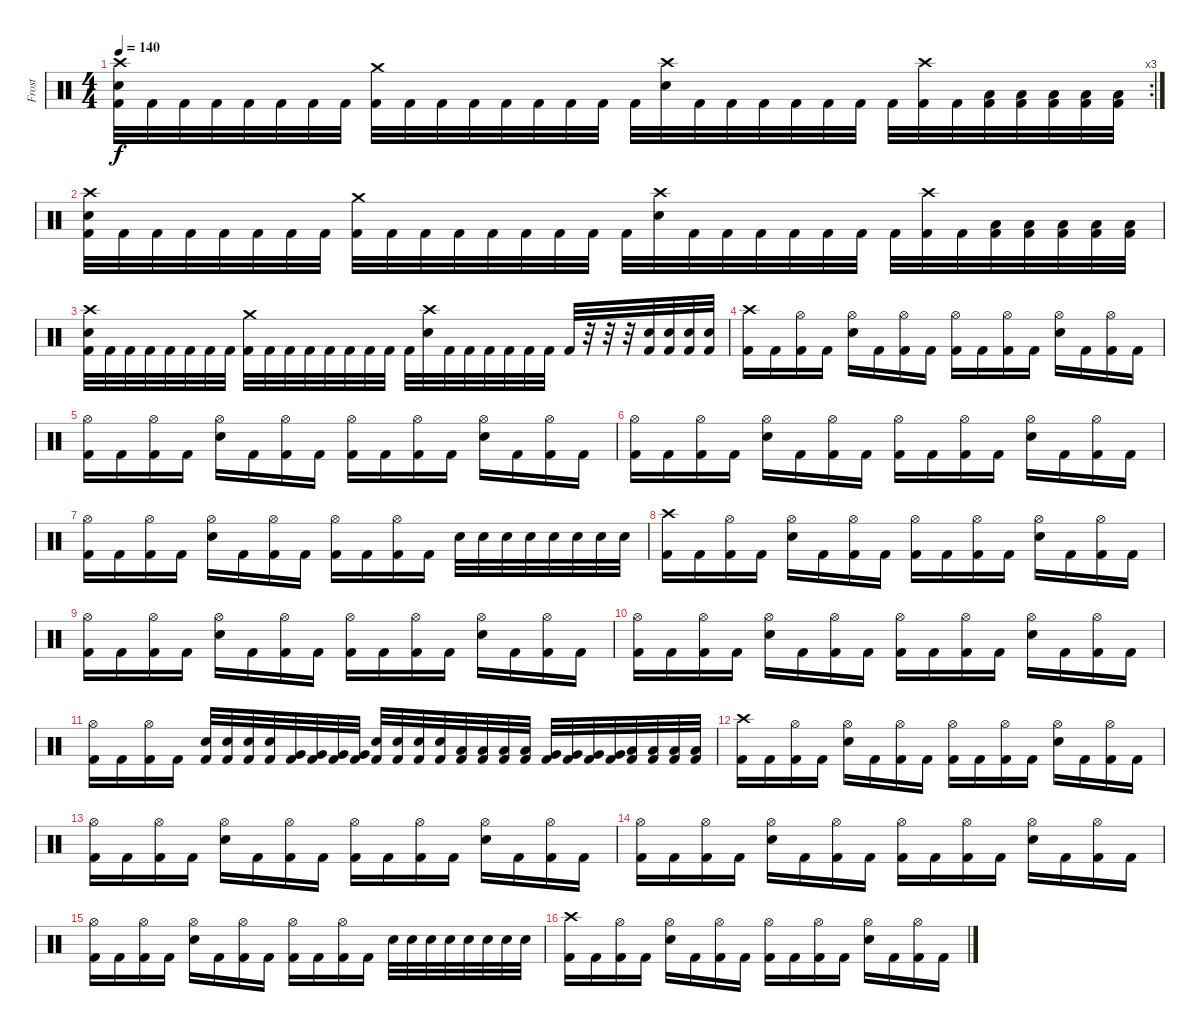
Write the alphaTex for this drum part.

\track ("Frost" "Frost") {instrument percussion}
\staff {score}
\articulation defaults
\rc 3
\ts (4 4)
\tempo 140
\clef neutral
\ks c
("Crash high (hit)" "Snare (hit) 2" "Kick (hit) 2").32{dy f} "Kick (hit) 2".32 "Kick (hit) 2".32 "Kick (hit) 2".32 "Kick (hit) 2".32 "Kick (hit) 2".32 "Kick (hit) 2".32 "Kick (hit) 2".32 ("Crash medium (hit)" "Kick (hit) 2").32 "Kick (hit) 2".32 "Kick (hit) 2".32 "Kick (hit) 2".32 "Kick (hit) 2".32 "Kick (hit) 2".32 "Kick (hit) 2".32 "Kick (hit) 2".32 "Kick (hit) 2".32 ("Crash high (hit)" "Snare (hit) 2").32 "Kick (hit) 2".32 "Kick (hit) 2".32 "Kick (hit) 2".32 "Kick (hit) 2".32 "Kick (hit) 2".32 "Kick (hit) 2".32 "Kick (hit) 2".32 ("Crash high (hit)" "Kick (hit) 2").32 "Kick (hit) 2".32 ("Low Tom (hit)" "Kick (hit) 2").32 ("Low Tom (hit)" "Kick (hit) 2").32 ("Low Tom (hit)" "Kick (hit) 2").32 ("Low Tom (hit)" "Kick (hit) 2").32 ("Low Tom (hit)" "Kick (hit) 2").32 |
("Crash high (hit)" "Snare (hit) 2" "Kick (hit) 2").32 "Kick (hit) 2".32 "Kick (hit) 2".32 "Kick (hit) 2".32 "Kick (hit) 2".32 "Kick (hit) 2".32 "Kick (hit) 2".32 "Kick (hit) 2".32 ("Crash medium (hit)" "Kick (hit) 2").32 "Kick (hit) 2".32 "Kick (hit) 2".32 "Kick (hit) 2".32 "Kick (hit) 2".32 "Kick (hit) 2".32 "Kick (hit) 2".32 "Kick (hit) 2".32 "Kick (hit) 2".32 ("Crash high (hit)" "Snare (hit) 2").32 "Kick (hit) 2".32 "Kick (hit) 2".32 "Kick (hit) 2".32 "Kick (hit) 2".32 "Kick (hit) 2".32 "Kick (hit) 2".32 "Kick (hit) 2".32 ("Crash high (hit)" "Kick (hit) 2").32 "Kick (hit) 2".32 ("Low Tom (hit)" "Kick (hit) 2").32 ("Low Tom (hit)" "Kick (hit) 2").32 ("Low Tom (hit)" "Kick (hit) 2").32 ("Low Tom (hit)" "Kick (hit) 2").32 ("Low Tom (hit)" "Kick (hit) 2").32 |
("Crash high (hit)" "Snare (hit) 2" "Kick (hit) 2").32 "Kick (hit) 2".32 "Kick (hit) 2".32 "Kick (hit) 2".32 "Kick (hit) 2".32 "Kick (hit) 2".32 "Kick (hit) 2".32 "Kick (hit) 2".32 ("Crash medium (hit)" "Kick (hit) 2").32 "Kick (hit) 2".32 "Kick (hit) 2".32 "Kick (hit) 2".32 "Kick (hit) 2".32 "Kick (hit) 2".32 "Kick (hit) 2".32 "Kick (hit) 2".32 "Kick (hit) 2".32 ("Crash high (hit)" "Snare (hit) 2").32 "Kick (hit) 2".32 "Kick (hit) 2".32 "Kick (hit) 2".32 "Kick (hit) 2".32 "Kick (hit) 2".32 "Kick (hit) 2".32 "Kick (hit) 2".32 r.32 r.32 r.32 ("Snare (hit) 2" "Kick (hit) 2").32 ("Snare (hit) 2" "Kick (hit) 2").32 ("Snare (hit) 2" "Kick (hit) 2").32 ("Snare (hit) 2" "Kick (hit) 2").32 |
("Crash high (hit)" "Kick (hit) 2").16 "Kick (hit) 2".16 ("Hi-Hat (open)" "Kick (hit) 2").16 "Kick (hit) 2".16 ("Hi-Hat (open)" "Snare (hit) 2").16 "Kick (hit) 2".16 ("Hi-Hat (open)" "Kick (hit) 2").16 "Kick (hit) 2".16 ("Hi-Hat (open)" "Kick (hit) 2").16 "Kick (hit) 2".16 ("Hi-Hat (open)" "Kick (hit) 2").16 "Kick (hit) 2".16 ("Hi-Hat (open)" "Snare (hit) 2").16 "Kick (hit) 2".16 ("Hi-Hat (open)" "Kick (hit) 2").16 "Kick (hit) 2".16 |
("Hi-Hat (open)" "Kick (hit) 2").16 "Kick (hit) 2".16 ("Hi-Hat (open)" "Kick (hit) 2").16 "Kick (hit) 2".16 ("Hi-Hat (open)" "Snare (hit) 2").16 "Kick (hit) 2".16 ("Hi-Hat (open)" "Kick (hit) 2").16 "Kick (hit) 2".16 ("Hi-Hat (open)" "Kick (hit) 2").16 "Kick (hit) 2".16 ("Hi-Hat (open)" "Kick (hit) 2").16 "Kick (hit) 2".16 ("Hi-Hat (open)" "Snare (hit) 2").16 "Kick (hit) 2".16 ("Hi-Hat (open)" "Kick (hit) 2").16 "Kick (hit) 2".16 |
("Hi-Hat (open)" "Kick (hit) 2").16 "Kick (hit) 2".16 ("Hi-Hat (open)" "Kick (hit) 2").16 "Kick (hit) 2".16 ("Hi-Hat (open)" "Snare (hit) 2").16 "Kick (hit) 2".16 ("Hi-Hat (open)" "Kick (hit) 2").16 "Kick (hit) 2".16 ("Hi-Hat (open)" "Kick (hit) 2").16 "Kick (hit) 2".16 ("Hi-Hat (open)" "Kick (hit) 2").16 "Kick (hit) 2".16 ("Hi-Hat (open)" "Snare (hit) 2").16 "Kick (hit) 2".16 ("Hi-Hat (open)" "Kick (hit) 2").16 "Kick (hit) 2".16 |
("Hi-Hat (open)" "Kick (hit) 2").16 "Kick (hit) 2".16 ("Hi-Hat (open)" "Kick (hit) 2").16 "Kick (hit) 2".16 ("Hi-Hat (open)" "Snare (hit) 2").16 "Kick (hit) 2".16 ("Hi-Hat (open)" "Kick (hit) 2").16 "Kick (hit) 2".16 ("Hi-Hat (open)" "Kick (hit) 2").16 "Kick (hit) 2".16 ("Hi-Hat (open)" "Kick (hit) 2").16 "Kick (hit) 2".16 "Snare (hit) 2".32 "Snare (hit) 2".32 "Snare (hit) 2".32 "Snare (hit) 2".32 "Snare (hit) 2".32 "Snare (hit) 2".32 "Snare (hit) 2".32 "Snare (hit) 2".32 |
("Crash high (hit)" "Kick (hit) 2").16 "Kick (hit) 2".16 ("Hi-Hat (open)" "Kick (hit) 2").16 "Kick (hit) 2".16 ("Hi-Hat (open)" "Snare (hit) 2").16 "Kick (hit) 2".16 ("Hi-Hat (open)" "Kick (hit) 2").16 "Kick (hit) 2".16 ("Hi-Hat (open)" "Kick (hit) 2").16 "Kick (hit) 2".16 ("Hi-Hat (open)" "Kick (hit) 2").16 "Kick (hit) 2".16 ("Hi-Hat (open)" "Snare (hit) 2").16 "Kick (hit) 2".16 ("Hi-Hat (open)" "Kick (hit) 2").16 "Kick (hit) 2".16 |
("Hi-Hat (open)" "Kick (hit) 2").16 "Kick (hit) 2".16 ("Hi-Hat (open)" "Kick (hit) 2").16 "Kick (hit) 2".16 ("Hi-Hat (open)" "Snare (hit) 2").16 "Kick (hit) 2".16 ("Hi-Hat (open)" "Kick (hit) 2").16 "Kick (hit) 2".16 ("Hi-Hat (open)" "Kick (hit) 2").16 "Kick (hit) 2".16 ("Hi-Hat (open)" "Kick (hit) 2").16 "Kick (hit) 2".16 ("Hi-Hat (open)" "Snare (hit) 2").16 "Kick (hit) 2".16 ("Hi-Hat (open)" "Kick (hit) 2").16 "Kick (hit) 2".16 |
("Hi-Hat (open)" "Kick (hit) 2").16 "Kick (hit) 2".16 ("Hi-Hat (open)" "Kick (hit) 2").16 "Kick (hit) 2".16 ("Hi-Hat (open)" "Snare (hit) 2").16 "Kick (hit) 2".16 ("Hi-Hat (open)" "Kick (hit) 2").16 "Kick (hit) 2".16 ("Hi-Hat (open)" "Kick (hit) 2").16 "Kick (hit) 2".16 ("Hi-Hat (open)" "Kick (hit) 2").16 "Kick (hit) 2".16 ("Hi-Hat (open)" "Snare (hit) 2").16 "Kick (hit) 2".16 ("Hi-Hat (open)" "Kick (hit) 2").16 "Kick (hit) 2".16 |
("Hi-Hat (open)" "Kick (hit) 2").16 "Kick (hit) 2".16 ("Hi-Hat (open)" "Kick (hit) 2").16 "Kick (hit) 2".16 ("Snare (hit) 2" "Kick (hit) 2").32 ("Snare (hit) 2" "Kick (hit) 2").32 ("Snare (hit) 2" "Kick (hit) 2").32 ("Snare (hit) 2" "Kick (hit) 2").32 ("Very Low Tom (hit)" "Kick (hit) 2").32 ("Very Low Tom (hit)" "Kick (hit) 2").32 ("Very Low Tom (hit)" "Kick (hit) 2").32 ("Very Low Tom (hit)" "Kick (hit) 2").32 ("Snare (hit) 2" "Kick (hit) 2").32 ("Snare (hit) 2" "Kick (hit) 2").32 ("Snare (hit) 2" "Kick (hit) 2").32 ("Snare (hit) 2" "Kick (hit) 2").32 ("Low Tom (hit)" "Kick (hit) 2").32 ("Low Tom (hit)" "Kick (hit) 2").32 ("Low Tom (hit)" "Kick (hit) 2").32 ("Low Tom (hit)" "Kick (hit) 2").32 ("Very Low Tom (hit)" "Kick (hit) 2").32 ("Very Low Tom (hit)" "Kick (hit) 2").32 ("Very Low Tom (hit)" "Kick (hit) 2").32 ("Very Low Tom (hit)" "Kick (hit) 2").32 ("Low Floor Tom (hit)" "Kick (hit) 2").32 ("Low Floor Tom (hit)" "Kick (hit) 2").32 ("Low Floor Tom (hit)" "Kick (hit) 2").32 ("Low Floor Tom (hit)" "Kick (hit) 2").32 |
("Crash high (hit)" "Kick (hit) 2").16 "Kick (hit) 2".16 ("Hi-Hat (open)" "Kick (hit) 2").16 "Kick (hit) 2".16 ("Hi-Hat (open)" "Snare (hit) 2").16 "Kick (hit) 2".16 ("Hi-Hat (open)" "Kick (hit) 2").16 "Kick (hit) 2".16 ("Hi-Hat (open)" "Kick (hit) 2").16 "Kick (hit) 2".16 ("Hi-Hat (open)" "Kick (hit) 2").16 "Kick (hit) 2".16 ("Hi-Hat (open)" "Snare (hit) 2").16 "Kick (hit) 2".16 ("Hi-Hat (open)" "Kick (hit) 2").16 "Kick (hit) 2".16 |
("Hi-Hat (open)" "Kick (hit) 2").16 "Kick (hit) 2".16 ("Hi-Hat (open)" "Kick (hit) 2").16 "Kick (hit) 2".16 ("Hi-Hat (open)" "Snare (hit) 2").16 "Kick (hit) 2".16 ("Hi-Hat (open)" "Kick (hit) 2").16 "Kick (hit) 2".16 ("Hi-Hat (open)" "Kick (hit) 2").16 "Kick (hit) 2".16 ("Hi-Hat (open)" "Kick (hit) 2").16 "Kick (hit) 2".16 ("Hi-Hat (open)" "Snare (hit) 2").16 "Kick (hit) 2".16 ("Hi-Hat (open)" "Kick (hit) 2").16 "Kick (hit) 2".16 |
("Hi-Hat (open)" "Kick (hit) 2").16 "Kick (hit) 2".16 ("Hi-Hat (open)" "Kick (hit) 2").16 "Kick (hit) 2".16 ("Hi-Hat (open)" "Snare (hit) 2").16 "Kick (hit) 2".16 ("Hi-Hat (open)" "Kick (hit) 2").16 "Kick (hit) 2".16 ("Hi-Hat (open)" "Kick (hit) 2").16 "Kick (hit) 2".16 ("Hi-Hat (open)" "Kick (hit) 2").16 "Kick (hit) 2".16 ("Hi-Hat (open)" "Snare (hit) 2").16 "Kick (hit) 2".16 ("Hi-Hat (open)" "Kick (hit) 2").16 "Kick (hit) 2".16 |
("Hi-Hat (open)" "Kick (hit) 2").16 "Kick (hit) 2".16 ("Hi-Hat (open)" "Kick (hit) 2").16 "Kick (hit) 2".16 ("Hi-Hat (open)" "Snare (hit) 2").16 "Kick (hit) 2".16 ("Hi-Hat (open)" "Kick (hit) 2").16 "Kick (hit) 2".16 ("Hi-Hat (open)" "Kick (hit) 2").16 "Kick (hit) 2".16 ("Hi-Hat (open)" "Kick (hit) 2").16 "Kick (hit) 2".16 "Snare (hit) 2".32 "Snare (hit) 2".32 "Snare (hit) 2".32 "Snare (hit) 2".32 "Snare (hit) 2".32 "Snare (hit) 2".32 "Snare (hit) 2".32 "Snare (hit) 2".32 |
("Crash high (hit)" "Kick (hit) 2").16 "Kick (hit) 2".16 ("Hi-Hat (open)" "Kick (hit) 2").16 "Kick (hit) 2".16 ("Hi-Hat (open)" "Snare (hit) 2").16 "Kick (hit) 2".16 ("Hi-Hat (open)" "Kick (hit) 2").16 "Kick (hit) 2".16 ("Hi-Hat (open)" "Kick (hit) 2").16 "Kick (hit) 2".16 ("Hi-Hat (open)" "Kick (hit) 2").16 "Kick (hit) 2".16 ("Hi-Hat (open)" "Snare (hit) 2").16 "Kick (hit) 2".16 ("Hi-Hat (open)" "Kick (hit) 2").16 "Kick (hit) 2".16
